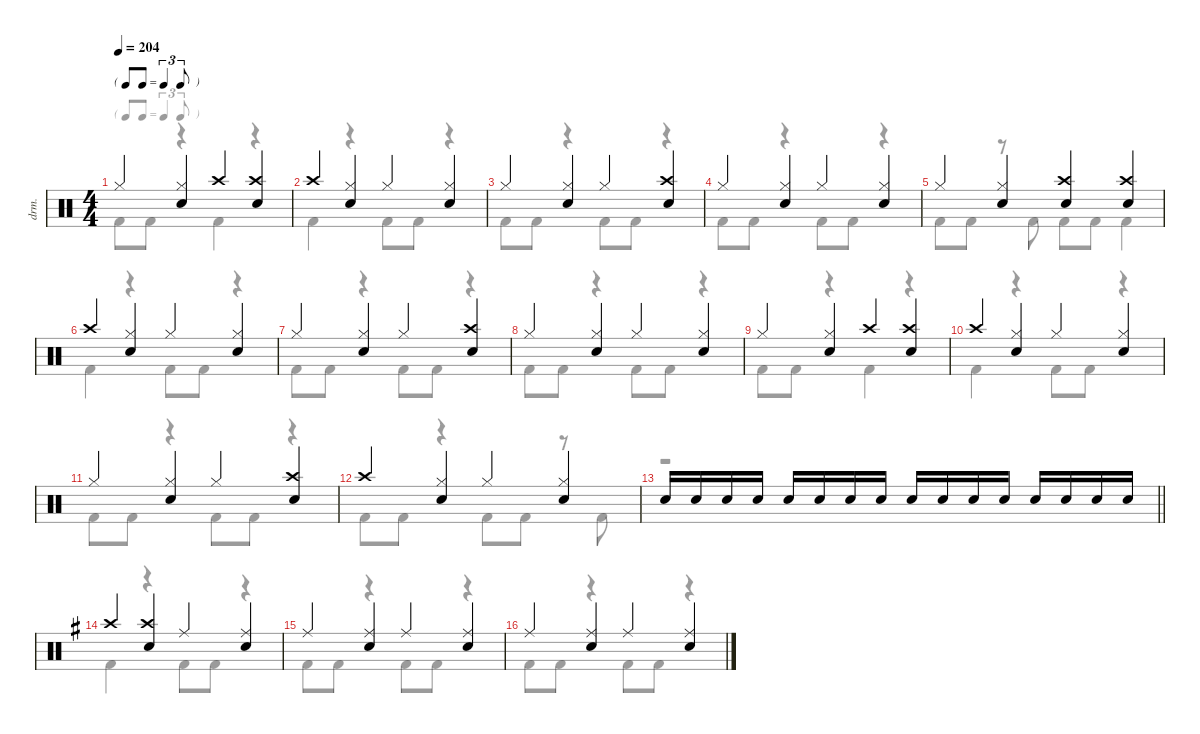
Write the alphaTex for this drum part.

\defaultSystemsLayout 4
\hideDynamics
\bracketExtendMode nobrackets
\otherSystemsTrackNameOrientation horizontal
\track ("Lars Ulrich" "drm.") {defaultSystemsLayout 8 instrument percussion}
\staff {score}
\articulation defaults
\voice
\ts (4 4)
\tf triplet8th
\tempo 204
\clef neutral
\ks aminor "Hi-Hat (closed)".4{dy f beam Up}
("Hi-Hat (closed)" "Snare (hit) 2").4{beam Up} "Crash high (hit)".4{beam Up} ("Crash high (hit)" "Snare (hit) 2").4{beam Up} |
"Crash high (hit)".4{beam Up} ("Hi-Hat (closed)" "Snare (hit) 2").4{beam Up} "Hi-Hat (closed)".4{beam Up} ("Hi-Hat (closed)" "Snare (hit) 2").4{beam Up} |
"Hi-Hat (closed)".4{beam Up} ("Hi-Hat (closed)" "Snare (hit) 2").4{beam Up} "Hi-Hat (closed)".4{beam Up} ("Crash high (hit)" "Snare (hit) 2").4{beam Up} |
"Hi-Hat (closed)".4{beam Up} ("Hi-Hat (closed)" "Snare (hit) 2").4{beam Up} "Hi-Hat (closed)".4{beam Up} ("Hi-Hat (closed)" "Snare (hit) 2").4{beam Up} |
"Hi-Hat (closed)".4{beam Up} ("Hi-Hat (closed)" "Snare (hit) 2").4{beam Up} ("Crash high (hit)" "Snare (hit) 2").4{beam Up} ("Crash high (hit)" "Snare (hit) 2").4{beam Up} |
"Crash high (hit)".4{beam Up} ("Hi-Hat (closed)" "Snare (hit) 2").4{beam Up} "Hi-Hat (closed)".4{beam Up} ("Hi-Hat (closed)" "Snare (hit) 2").4{beam Up} |
"Hi-Hat (closed)".4{beam Up} ("Hi-Hat (closed)" "Snare (hit) 2").4{beam Up} "Hi-Hat (closed)".4{beam Up} ("Crash high (hit)" "Snare (hit) 2").4{beam Up} |
"Hi-Hat (closed)".4{beam Up} ("Hi-Hat (closed)" "Snare (hit) 2").4{beam Up} "Hi-Hat (closed)".4{beam Up} ("Hi-Hat (closed)" "Snare (hit) 2").4{beam Up} |
"Hi-Hat (closed)".4{beam Up} ("Hi-Hat (closed)" "Snare (hit) 2").4{beam Up} "Crash high (hit)".4{beam Up} ("Crash high (hit)" "Snare (hit) 2").4{beam Up} |
"Crash high (hit)".4{beam Up} ("Hi-Hat (closed)" "Snare (hit) 2").4{beam Up} "Hi-Hat (closed)".4{beam Up} ("Hi-Hat (closed)" "Snare (hit) 2").4{beam Up} |
"Hi-Hat (closed)".4{beam Up} ("Hi-Hat (closed)" "Snare (hit) 2").4{beam Up} "Hi-Hat (closed)".4{beam Up} ("Crash high (hit)" "Snare (hit) 2").4{beam Up} |
"Crash high (hit)".4{beam Up} ("Hi-Hat (closed)" "Snare (hit) 2").4{beam Up} "Hi-Hat (closed)".4{beam Up} ("Hi-Hat (closed)" "Snare (hit) 2").4{beam Up} |
\barLineRight lightlight "Snare (hit) 2".16{beam Up} "Snare (hit) 2".16{beam Up} "Snare (hit) 2".16{beam Up} "Snare (hit) 2".16{beam Up} "Snare (hit) 2".16{beam Up} "Snare (hit) 2".16{beam Up} "Snare (hit) 2".16{beam Up} "Snare (hit) 2".16{beam Up} "Snare (hit) 2".16{beam Up} "Snare (hit) 2".16{beam Up} "Snare (hit) 2".16{beam Up} "Snare (hit) 2".16{beam Up} "Snare (hit) 2".16{beam Up} "Snare (hit) 2".16{beam Up} "Snare (hit) 2".16{beam Up} "Snare (hit) 2".16{beam Up}
|
\ks eminor "Crash high (hit)"{acc forcenatural}.4{beam Up}
("Crash high (hit)"{acc forcenatural} "Snare (hit) 2"{acc forcenatural}).4{beam Up} "Ride (middle)"{acc forcenatural}.4{beam Up} ("Ride (middle)"{acc forcenatural} "Snare (hit) 2"{acc forcenatural}).4{beam Up} |
"Ride (middle)"{acc forcenatural}.4{beam Up} ("Ride (middle)"{acc forcenatural} "Snare (hit) 2"{acc forcenatural}).4{beam Up} "Ride (middle)"{acc forcenatural}.4{beam Up} ("Ride (middle)"{acc forcenatural} "Snare (hit) 2"{acc forcenatural}).4{beam Up} |
"Ride (middle)"{acc forcenatural}.4{beam Up} ("Ride (middle)"{acc forcenatural} "Snare (hit) 2"{acc forcenatural}).4{beam Up} "Ride (middle)"{acc forcenatural}.4{beam Up} ("Ride (middle)"{acc forcenatural} "Snare (hit) 2"{acc forcenatural}).4{beam Up}
\voice
\clef neutral
\ottava regular
\simile none
\ks aminor "Kick (hit) 2".8{dy f beam Down} "Kick (hit) 2".8{beam Down}
r.4{beam Down} "Kick (hit) 2".4{beam Down} r.4{beam Down} |
"Kick (hit) 2".4{beam Down} r.4{beam Down} "Kick (hit) 2".8{beam Down} "Kick (hit) 2".8{beam Down} r.4{beam Down} |
"Kick (hit) 2".8{beam Down} "Kick (hit) 2".8{beam Down} r.4{beam Down} "Kick (hit) 2".8{beam Down} "Kick (hit) 2".8{beam Down} r.4{beam Down} |
"Kick (hit) 2".8{beam Down} "Kick (hit) 2".8{beam Down} r.4{beam Down} "Kick (hit) 2".8{beam Down} "Kick (hit) 2".8{beam Down} r.4{beam Down} |
"Kick (hit) 2".8{beam Down} "Kick (hit) 2".8{beam Down} r.8{beam Down} "Kick (hit) 2".8{beam Down} "Kick (hit) 2".8{beam Down} "Kick (hit) 2".8{beam Down} "Kick (hit) 2".4{beam Down} |
"Kick (hit) 2".4{beam Down} r.4{beam Down} "Kick (hit) 2".8{beam Down} "Kick (hit) 2".8{beam Down} r.4{beam Down} |
"Kick (hit) 2".8{beam Down} "Kick (hit) 2".8{beam Down} r.4{beam Down} "Kick (hit) 2".8{beam Down} "Kick (hit) 2".8{beam Down} r.4{beam Down} |
"Kick (hit) 2".8{beam Down} "Kick (hit) 2".8{beam Down} r.4{beam Down} "Kick (hit) 2".8{beam Down} "Kick (hit) 2".8{beam Down} r.4{beam Down} |
"Kick (hit) 2".8{beam Down} "Kick (hit) 2".8{beam Down} r.4{beam Down} "Kick (hit) 2".4{beam Down} r.4{beam Down} |
"Kick (hit) 2".4{beam Down} r.4{beam Down} "Kick (hit) 2".8{beam Down} "Kick (hit) 2".8{beam Down} r.4{beam Down} |
"Kick (hit) 2".8{beam Down} "Kick (hit) 2".8{beam Down} r.4{beam Down} "Kick (hit) 2".8{beam Down} "Kick (hit) 2".8{beam Down} r.4{beam Down} |
"Kick (hit) 2".8{beam Down} "Kick (hit) 2".8{beam Down} r.4{beam Down} "Kick (hit) 2".8{beam Down} "Kick (hit) 2".8{beam Down} r.8{beam Down} "Kick (hit) 2".8{beam Down} |
\barLineRight lightlight
r.1{beam Down} |
\ks eminor "Kick (hit) 2"{acc forcenatural}.4{beam Down}
r.4{beam Down} "Kick (hit) 2"{acc forcenatural}.8{beam Down} "Kick (hit) 2"{acc forcenatural}.8{beam Down} r.4{beam Down} |
"Kick (hit) 2"{acc forcenatural}.8{beam Down} "Kick (hit) 2"{acc forcenatural}.8{beam Down} r.4{beam Down} "Kick (hit) 2"{acc forcenatural}.8{beam Down} "Kick (hit) 2"{acc forcenatural}.8{beam Down} r.4{beam Down} |
"Kick (hit) 2"{acc forcenatural}.8{beam Down} "Kick (hit) 2"{acc forcenatural}.8{beam Down} r.4{beam Down} "Kick (hit) 2"{acc forcenatural}.8{beam Down} "Kick (hit) 2"{acc forcenatural}.8{beam Down} r.4{beam Down}
